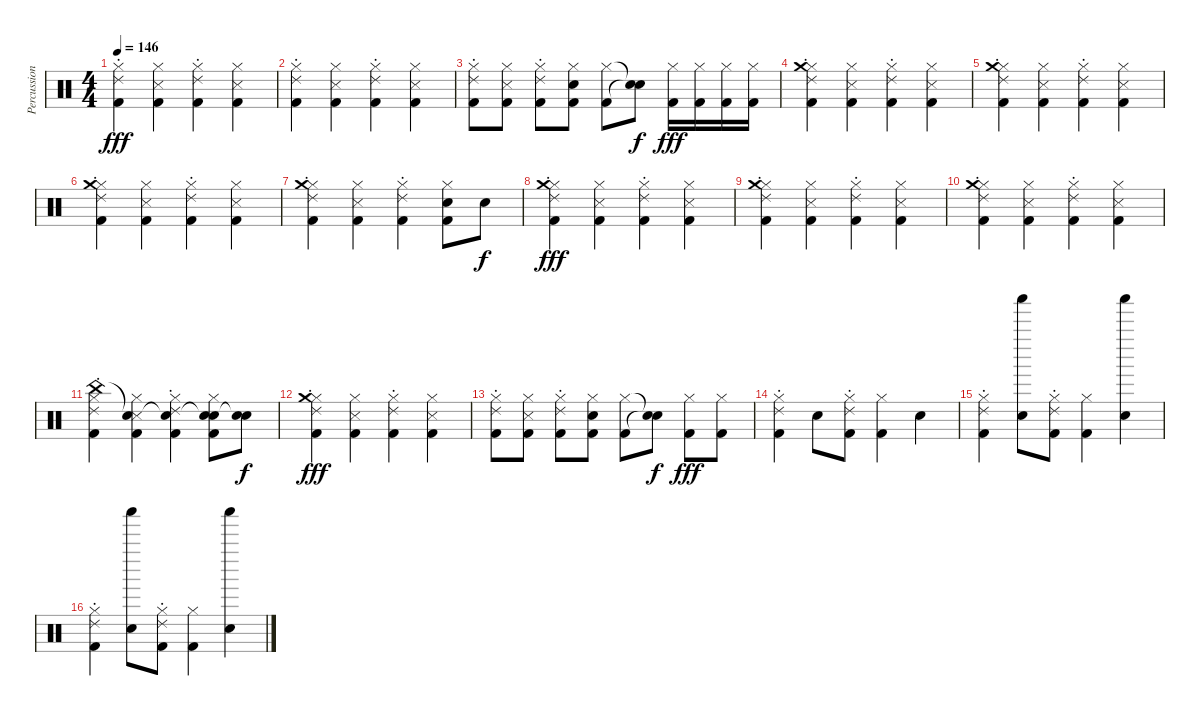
\track ("Percussion" "Percussion") {instrument percussion}
\staff {score}
\articulation defaults
\ts (4 4)
\tempo 146
\clef neutral
\ks c
("Hi-Hat (closed)" "Ride (choke) 2" "Kick (hit) 2").4{dy fff} ("Hi-Hat (closed)" "Metronome (hit)" "Kick (hit) 2").4 ("Hi-Hat (closed)" "Ride (choke) 2" "Kick (hit) 2").4 ("Hi-Hat (closed)" "Metronome (hit)" "Kick (hit) 2").4 |
("Hi-Hat (closed)" "Ride (choke) 2" "Kick (hit) 2").4 ("Hi-Hat (closed)" "Metronome (hit)" "Kick (hit) 2").4 ("Hi-Hat (closed)" "Ride (choke) 2" "Kick (hit) 2").4 ("Hi-Hat (closed)" "Metronome (hit)" "Kick (hit) 2").4 |
("Hi-Hat (closed)" "Ride (choke) 2" "Kick (hit) 2").8 ("Hi-Hat (closed)" "Metronome (hit)" "Kick (hit) 2").8 ("Hi-Hat (closed)" "Ride (choke) 2" "Kick (hit) 2").8 ("Hi-Hat (closed)" "Hand Clap (hit)" "Kick (hit) 2").8 ("Hi-Hat (closed)" "Kick (hit) 2").8 ("Snare (hit)"{t} "Snare (hit)"{t}).8{dy f} ("Hi-Hat (closed)" "Kick (hit) 2").16{dy fff} ("Hi-Hat (closed)" "Kick (hit) 2").16 ("Hi-Hat (closed)" "Kick (hit) 2").16 ("Hi-Hat (closed)" "Kick (hit) 2").16 |
("Hi-Hat (closed)" "Ride (choke) 2" "Crash medium (hit)" "Kick (hit) 2").4 ("Hi-Hat (closed)" "Metronome (hit)" "Kick (hit) 2").4 ("Hi-Hat (closed)" "Ride (choke) 2" "Kick (hit) 2").4 ("Hi-Hat (closed)" "Metronome (hit)" "Kick (hit) 2").4 |
("Hi-Hat (closed)" "Ride (choke) 2" "Crash medium (hit)" "Kick (hit) 2").4 ("Hi-Hat (closed)" "Metronome (hit)" "Kick (hit) 2").4 ("Hi-Hat (closed)" "Ride (choke) 2" "Kick (hit) 2").4 ("Hi-Hat (closed)" "Metronome (hit)" "Kick (hit) 2").4 |
("Hi-Hat (closed)" "Ride (choke) 2" "Crash medium (hit)" "Kick (hit) 2").4 ("Hi-Hat (closed)" "Metronome (hit)" "Kick (hit) 2").4 ("Hi-Hat (closed)" "Ride (choke) 2" "Kick (hit) 2").4 ("Hi-Hat (closed)" "Metronome (hit)" "Kick (hit) 2").4 |
("Hi-Hat (closed)" "Ride (choke) 2" "Crash medium (hit)" "Kick (hit) 2").4 ("Hi-Hat (closed)" "Metronome (hit)" "Kick (hit) 2").4 ("Hi-Hat (closed)" "Ride (choke) 2" "Kick (hit) 2").4 ("Hi-Hat (closed)" "Hand Clap (hit)" "Kick (hit) 2").8 "Hand Clap (hit)".8{dy f} |
("Hi-Hat (closed)" "Ride (choke) 2" "Crash medium (hit)" "Kick (hit) 2").4{dy fff} ("Hi-Hat (closed)" "Metronome (hit)" "Kick (hit) 2").4 ("Hi-Hat (closed)" "Ride (choke) 2" "Kick (hit) 2").4 ("Hi-Hat (closed)" "Metronome (hit)" "Kick (hit) 2").4 |
("Hi-Hat (closed)" "Ride (choke) 2" "Crash medium (hit)" "Kick (hit) 2").4 ("Hi-Hat (closed)" "Metronome (hit)" "Kick (hit) 2").4 ("Hi-Hat (closed)" "Ride (choke) 2" "Kick (hit) 2").4 ("Hi-Hat (closed)" "Metronome (hit)" "Kick (hit) 2").4 |
("Hi-Hat (closed)" "Ride (choke) 2" "Crash medium (hit)" "Kick (hit) 2").4 ("Hi-Hat (closed)" "Metronome (hit)" "Kick (hit) 2").4 ("Hi-Hat (closed)" "Ride (choke) 2" "Kick (hit) 2").4 ("Hi-Hat (closed)" "Metronome (hit)" "Kick (hit) 2").4 |
("Hi-Hat (closed)" "Ride (choke) 2" "China (hit)" "Kick (hit) 2").4 ("Hi-Hat (closed)" "Metronome (hit)" "Snare (hit)"{t} "Kick (hit) 2").4 ("Hi-Hat (closed)" "Ride (choke) 2" "Snare (hit)"{t} "Kick (hit) 2").4 ("Hi-Hat (closed)" "Hand Clap (hit)" "Snare (hit)"{t} "Kick (hit) 2").8 ("Hand Clap (hit)" "Snare (hit)"{t}).8{dy f} |
("Hi-Hat (closed)" "Ride (choke) 2" "Crash medium (hit)" "Kick (hit) 2").4{dy fff} ("Hi-Hat (closed)" "Metronome (hit)" "Kick (hit) 2").4 ("Hi-Hat (closed)" "Ride (choke) 2" "Kick (hit) 2").4 ("Hi-Hat (closed)" "Metronome (hit)" "Kick (hit) 2").4 |
("Hi-Hat (closed)" "Ride (choke) 2" "Kick (hit) 2").8 ("Hi-Hat (closed)" "Metronome (hit)" "Kick (hit) 2").8 ("Hi-Hat (closed)" "Ride (choke) 2" "Kick (hit) 2").8 ("Hi-Hat (closed)" "Hand Clap (hit)" "Kick (hit) 2").8 ("Hi-Hat (closed)" "Kick (hit) 2").8 ("Snare (hit)"{t} "Snare (hit)"{t}).8{dy f} ("Hi-Hat (closed)" "Kick (hit) 2").8{dy fff} ("Hi-Hat (closed)" "Kick (hit) 2").8 |
("Hi-Hat (closed)" "Ride (choke) 2" "Kick (hit) 2").4 "Hand Clap (hit)".8 ("Hi-Hat (closed)" "Ride (choke) 2" "Kick (hit) 2").8 ("Hi-Hat (closed)" "Kick (hit) 2").4 "Hand Clap (hit)".4 |
("Hi-Hat (closed)" "Ride (choke) 2" "Kick (hit) 2").4 ("Hand Clap (hit)" "Shaker (hit)").8 ("Hi-Hat (closed)" "Ride (choke) 2" "Kick (hit) 2").8 ("Hi-Hat (closed)" "Kick (hit) 2").4 ("Hand Clap (hit)" "Shaker (hit)").4 |
("Hi-Hat (closed)" "Ride (choke) 2" "Kick (hit) 2").4 ("Hand Clap (hit)" "Shaker (hit)").8 ("Hi-Hat (closed)" "Ride (choke) 2" "Kick (hit) 2").8 ("Hi-Hat (closed)" "Kick (hit) 2").4 ("Hand Clap (hit)" "Shaker (hit)").4
